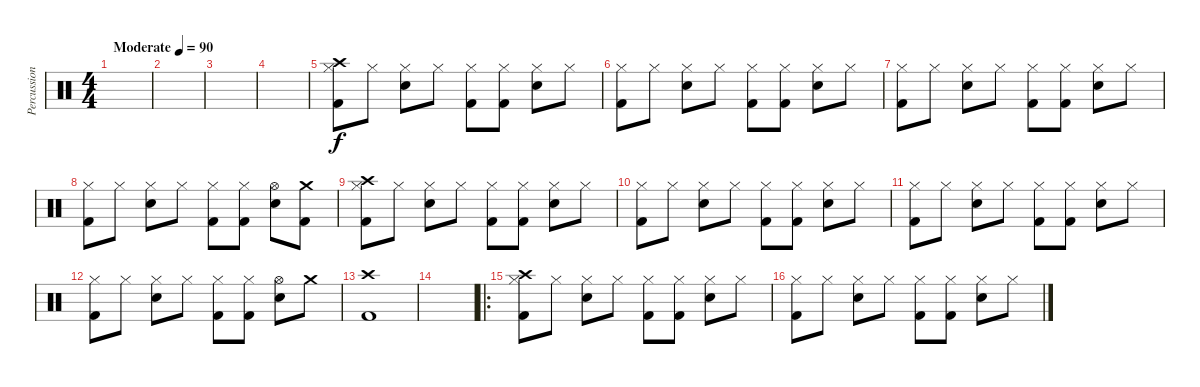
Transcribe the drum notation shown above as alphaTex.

\track ("Percussions" "Percussion") {instrument percussion}
\staff {score}
\articulation defaults
\ts (4 4)
\tempo (90 "Moderate")
\clef neutral
\ks c
|
|
|
|
("Crash high (hit)" "Hi-Hat (closed)" "Kick (hit) 2").8 "Hi-Hat (closed)".8 ("Hi-Hat (closed)" "Snare (hit) 2").8 "Hi-Hat (closed)".8 ("Hi-Hat (closed)" "Kick (hit) 2").8 ("Hi-Hat (closed)" "Kick (hit) 2").8 ("Hi-Hat (closed)" "Snare (hit) 2").8 "Hi-Hat (closed)".8 |
("Hi-Hat (closed)" "Kick (hit) 2").8 "Hi-Hat (closed)".8 ("Hi-Hat (closed)" "Snare (hit) 2").8 "Hi-Hat (closed)".8 ("Hi-Hat (closed)" "Kick (hit) 2").8 ("Hi-Hat (closed)" "Kick (hit) 2").8 ("Hi-Hat (closed)" "Snare (hit) 2").8 "Hi-Hat (closed)".8 |
("Hi-Hat (closed)" "Kick (hit) 2").8 "Hi-Hat (closed)".8 ("Hi-Hat (closed)" "Snare (hit) 2").8 "Hi-Hat (closed)".8 ("Hi-Hat (closed)" "Kick (hit) 2").8 ("Hi-Hat (closed)" "Kick (hit) 2").8 ("Hi-Hat (closed)" "Snare (hit) 2").8 "Hi-Hat (closed)".8 |
("Hi-Hat (closed)" "Kick (hit) 2").8 "Hi-Hat (closed)".8 ("Hi-Hat (closed)" "Snare (hit) 2").8 "Hi-Hat (closed)".8 ("Hi-Hat (closed)" "Kick (hit) 2").8 ("Hi-Hat (closed)" "Kick (hit) 2").8 ("Hi-Hat (open)" "Snare (hit) 2").8 ("Crash medium (hit)" "Kick (hit) 2").8 |
("Crash high (hit)" "Hi-Hat (closed)" "Kick (hit) 2").8 "Hi-Hat (closed)".8 ("Hi-Hat (closed)" "Snare (hit) 2").8 "Hi-Hat (closed)".8 ("Hi-Hat (closed)" "Kick (hit) 2").8 ("Hi-Hat (closed)" "Kick (hit) 2").8 ("Hi-Hat (closed)" "Snare (hit) 2").8 "Hi-Hat (closed)".8 |
("Hi-Hat (closed)" "Kick (hit) 2").8 "Hi-Hat (closed)".8 ("Hi-Hat (closed)" "Snare (hit) 2").8 "Hi-Hat (closed)".8 ("Hi-Hat (closed)" "Kick (hit) 2").8 ("Hi-Hat (closed)" "Kick (hit) 2").8 ("Hi-Hat (closed)" "Snare (hit) 2").8 "Hi-Hat (closed)".8 |
("Hi-Hat (closed)" "Kick (hit) 2").8 "Hi-Hat (closed)".8 ("Hi-Hat (closed)" "Snare (hit) 2").8 "Hi-Hat (closed)".8 ("Hi-Hat (closed)" "Kick (hit) 2").8 ("Hi-Hat (closed)" "Kick (hit) 2").8 ("Hi-Hat (closed)" "Snare (hit) 2").8 "Hi-Hat (closed)".8 |
("Hi-Hat (closed)" "Kick (hit) 2").8 "Hi-Hat (closed)".8 ("Hi-Hat (closed)" "Snare (hit) 2").8 "Hi-Hat (closed)".8 ("Hi-Hat (closed)" "Kick (hit) 2").8 ("Hi-Hat (closed)" "Kick (hit) 2").8 ("Hi-Hat (open)" "Snare (hit) 2").8 "Crash medium (hit)".8 |
("Crash high (hit)" "Kick (hit) 2").1 |
|
\ro
("Crash high (hit)" "Hi-Hat (closed)" "Kick (hit) 2").8 "Hi-Hat (closed)".8 ("Hi-Hat (closed)" "Snare (hit) 2").8 "Hi-Hat (closed)".8 ("Hi-Hat (closed)" "Kick (hit) 2").8 ("Hi-Hat (closed)" "Kick (hit) 2").8 ("Hi-Hat (closed)" "Snare (hit) 2").8 "Hi-Hat (closed)".8 |
("Hi-Hat (closed)" "Kick (hit) 2").8 "Hi-Hat (closed)".8 ("Hi-Hat (closed)" "Snare (hit) 2").8 "Hi-Hat (closed)".8 ("Hi-Hat (closed)" "Kick (hit) 2").8 ("Hi-Hat (closed)" "Kick (hit) 2").8 ("Hi-Hat (closed)" "Snare (hit) 2").8 "Hi-Hat (closed)".8
